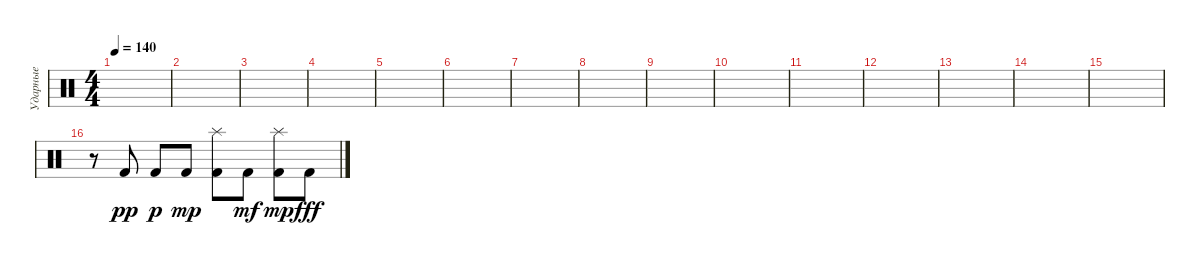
\track ("Ударные" "Ударные") {instrument percussion}
\staff {score}
\articulation defaults
\ts (4 4)
\tempo 140
\clef neutral
\ks c
|
|
|
|
|
|
|
|
|
|
|
|
|
|
|
r.8 "Kick (hit) 2".8{dy pp} "Kick (hit) 2".8{dy p} "Kick (hit) 2".8{dy mp} ("Splash (hit)" "Kick (hit) 2").8 "Kick (hit) 2".8{dy mf} ("Splash (hit)" "Kick (hit) 2").8{dy mp} "Kick (hit) 2".8{dy fff}
